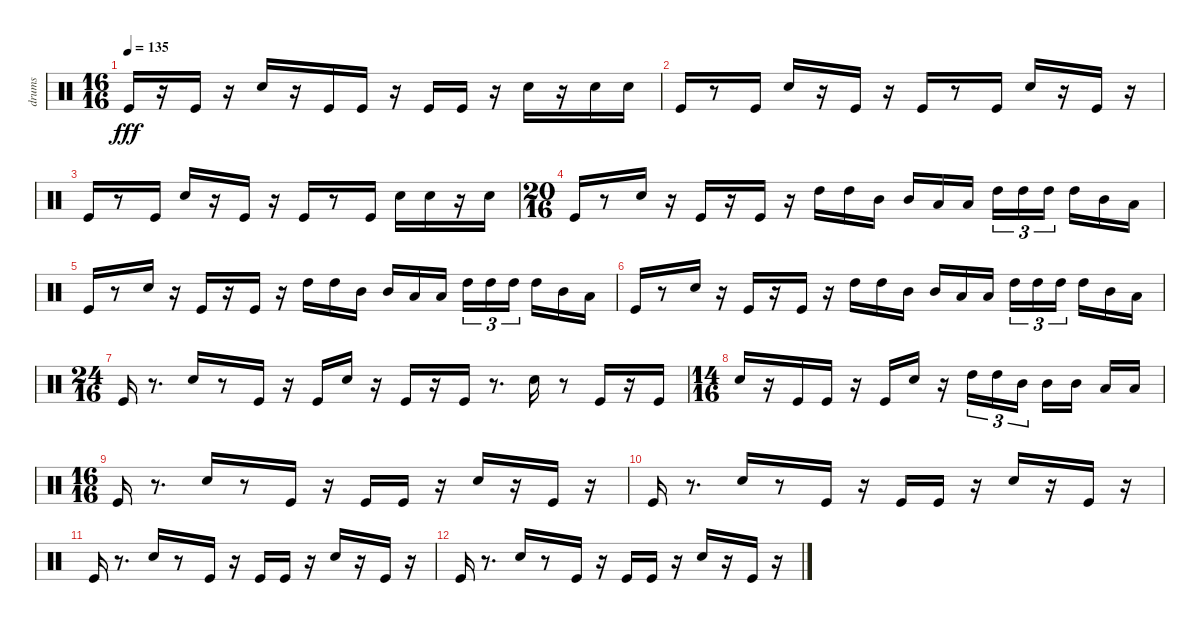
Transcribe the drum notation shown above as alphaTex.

\track ("drums" "drums") {instrument percussion}
\staff {score}
\articulation defaults
\ts (16 16)
\tempo 135
\clef neutral
\ks c "Kick (hit)".16{dy fff}
r.16 "Kick (hit)".16 r.16 "Snare (hit) 2".16 r.16 "Kick (hit)".16 "Kick (hit)".16 r.16 "Kick (hit)".16 "Kick (hit)".16 r.16 "Snare (hit) 2".16 r.16 "Snare (hit) 2".16 "Snare (hit) 2".16 |
"Kick (hit)".16 r.8 "Kick (hit)".16 "Snare (hit) 2".16 r.16 "Kick (hit)".16 r.16 "Kick (hit)".16 r.8 "Kick (hit)".16 "Snare (hit) 2".16 r.16 "Kick (hit)".16 r.16 |
"Kick (hit)".16 r.8 "Kick (hit)".16 "Snare (hit) 2".16 r.16 "Kick (hit)".16 r.16 "Kick (hit)".16 r.8 "Kick (hit)".16 "Snare (hit) 2".16 "Snare (hit) 2".16 r.16 "Snare (hit) 2".16 |
\ts (20 16)
"Kick (hit)".16 r.8 "Snare (hit) 2".16 r.16 "Kick (hit)".16 r.16 "Kick (hit)".16 r.16 "High Tom (hit)".16 "High Tom (hit)".16 "Mid Tom (hit)".16 "Mid Tom (hit)".16 "Low Tom (hit)".16 "Low Tom (hit)".16 "High Tom (hit)".16{tu (3 2)} "High Tom (hit)".16{tu (3 2)} "High Tom (hit)".16{tu (3 2)} "High Tom (hit)".16 "Mid Tom (hit)".16 "Low Tom (hit)".16 |
"Kick (hit)".16 r.8 "Snare (hit) 2".16 r.16 "Kick (hit)".16 r.16 "Kick (hit)".16 r.16 "High Tom (hit)".16 "High Tom (hit)".16 "Mid Tom (hit)".16 "Mid Tom (hit)".16 "Low Tom (hit)".16 "Low Tom (hit)".16 "High Tom (hit)".16{tu (3 2)} "High Tom (hit)".16{tu (3 2)} "High Tom (hit)".16{tu (3 2)} "High Tom (hit)".16 "Mid Tom (hit)".16 "Low Tom (hit)".16 |
"Kick (hit)".16 r.8 "Snare (hit) 2".16 r.16 "Kick (hit)".16 r.16 "Kick (hit)".16 r.16 "High Tom (hit)".16 "High Tom (hit)".16 "Mid Tom (hit)".16 "Mid Tom (hit)".16 "Low Tom (hit)".16 "Low Tom (hit)".16 "High Tom (hit)".16{tu (3 2)} "High Tom (hit)".16{tu (3 2)} "High Tom (hit)".16{tu (3 2)} "High Tom (hit)".16 "Mid Tom (hit)".16 "Low Tom (hit)".16 |
\ts (24 16)
"Kick (hit)".16 r.8{d} "Snare (hit) 2".16 r.8 "Kick (hit)".16 r.16 "Kick (hit)".16 "Snare (hit) 2".16 r.16 "Kick (hit)".16 r.16 "Kick (hit)".16 r.8{d} "Snare (hit) 2".16 r.8 "Kick (hit)".16 r.16 "Kick (hit)".16 |
\ts (14 16)
"Snare (hit) 2".16 r.16 "Kick (hit)".16 "Kick (hit)".16 r.16 "Kick (hit)".16 "Snare (hit) 2".16 r.16 "High Tom (hit)".16{tu (3 2)} "High Tom (hit)".16{tu (3 2)} "Mid Tom (hit)".16{tu (3 2)} "Mid Tom (hit)".16 "Mid Tom (hit)".16 "Low Tom (hit)".16 "Low Tom (hit)".16 |
\ts (16 16)
"Kick (hit)".16{volume 16} r.8{d} "Snare (hit) 2".16{volume 15} r.8 "Kick (hit)".16{volume 14} r.16 "Kick (hit)".16{volume 14} "Kick (hit)".16{volume 13} r.16 "Snare (hit) 2".16{volume 13} r.16 "Kick (hit)".16{volume 12} r.16 |
"Kick (hit)".16{volume 12} r.8{d} "Snare (hit) 2".16{volume 11} r.8 "Kick (hit)".16{volume 11} r.16 "Kick (hit)".16{volume 10} "Kick (hit)".16{volume 10} r.16 "Snare (hit) 2".16{volume 9} r.16 "Kick (hit)".16{volume 9} r.16 |
"Kick (hit)".16{volume 8} r.8{d} "Snare (hit) 2".16{volume 8} r.8 "Kick (hit)".16{volume 7} r.16 "Kick (hit)".16{volume 7} "Kick (hit)".16{volume 6} r.16 "Snare (hit) 2".16{volume 6} r.16 "Kick (hit)".16{volume 6} r.16 |
"Kick (hit)".16{volume 5} r.8{d} "Snare (hit) 2".16{volume 4} r.8 "Kick (hit)".16{volume 4} r.16 "Kick (hit)".16{volume 3} "Kick (hit)".16{volume 3} r.16 "Snare (hit) 2".16{volume 2} r.16 "Kick (hit)".16{volume 2} r.16
